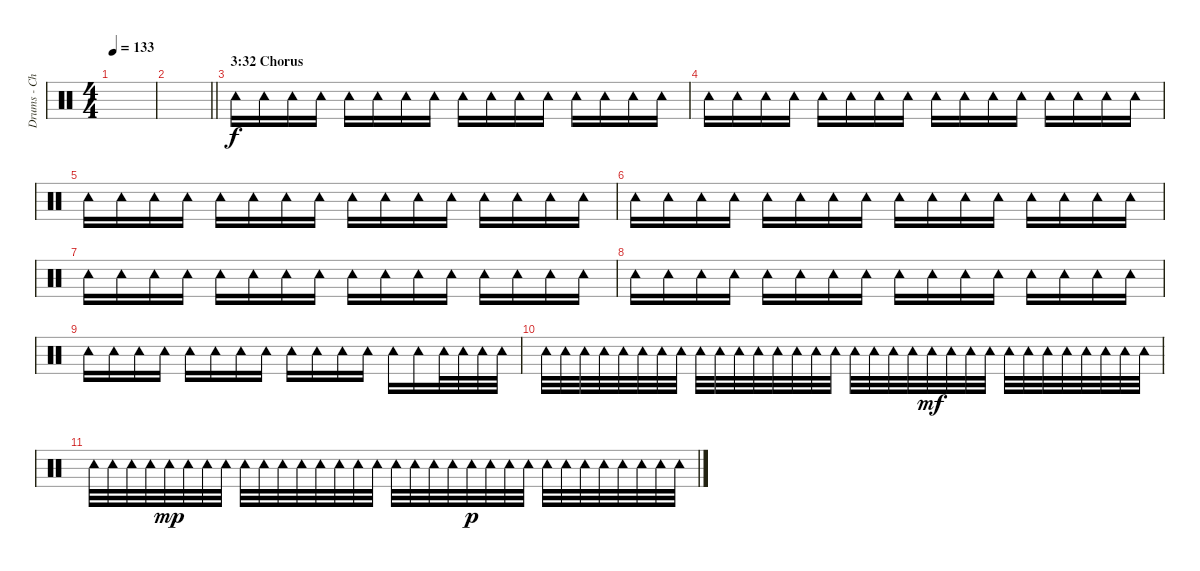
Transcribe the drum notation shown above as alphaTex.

\track ("Drums - Chorus - Tambourine" "Drums - Ch") {instrument percussion}
\staff {score}
\articulation defaults
\ts (4 4)
\tempo 133
\clef neutral
\ks c
|
\barLineRight lightlight
|
\section ("" "3:32 Chorus")
"Tambourine (hit)".16 "Tambourine (hit)".16 "Tambourine (hit)".16 "Tambourine (hit)".16 "Tambourine (hit)".16 "Tambourine (hit)".16 "Tambourine (hit)".16 "Tambourine (hit)".16 "Tambourine (hit)".16 "Tambourine (hit)".16 "Tambourine (hit)".16 "Tambourine (hit)".16 "Tambourine (hit)".16 "Tambourine (hit)".16 "Tambourine (hit)".16 "Tambourine (hit)".16 |
"Tambourine (hit)".16 "Tambourine (hit)".16 "Tambourine (hit)".16 "Tambourine (hit)".16 "Tambourine (hit)".16 "Tambourine (hit)".16 "Tambourine (hit)".16 "Tambourine (hit)".16 "Tambourine (hit)".16 "Tambourine (hit)".16 "Tambourine (hit)".16 "Tambourine (hit)".16 "Tambourine (hit)".16 "Tambourine (hit)".16 "Tambourine (hit)".16 "Tambourine (hit)".16 |
"Tambourine (hit)".16 "Tambourine (hit)".16 "Tambourine (hit)".16 "Tambourine (hit)".16 "Tambourine (hit)".16 "Tambourine (hit)".16 "Tambourine (hit)".16 "Tambourine (hit)".16 "Tambourine (hit)".16 "Tambourine (hit)".16 "Tambourine (hit)".16 "Tambourine (hit)".16 "Tambourine (hit)".16 "Tambourine (hit)".16 "Tambourine (hit)".16 "Tambourine (hit)".16 |
"Tambourine (hit)".16 "Tambourine (hit)".16 "Tambourine (hit)".16 "Tambourine (hit)".16 "Tambourine (hit)".16 "Tambourine (hit)".16 "Tambourine (hit)".16 "Tambourine (hit)".16 "Tambourine (hit)".16 "Tambourine (hit)".16 "Tambourine (hit)".16 "Tambourine (hit)".16 "Tambourine (hit)".16 "Tambourine (hit)".16 "Tambourine (hit)".16 "Tambourine (hit)".16 |
"Tambourine (hit)".16 "Tambourine (hit)".16 "Tambourine (hit)".16 "Tambourine (hit)".16 "Tambourine (hit)".16 "Tambourine (hit)".16 "Tambourine (hit)".16 "Tambourine (hit)".16 "Tambourine (hit)".16 "Tambourine (hit)".16 "Tambourine (hit)".16 "Tambourine (hit)".16 "Tambourine (hit)".16 "Tambourine (hit)".16 "Tambourine (hit)".16 "Tambourine (hit)".16 |
"Tambourine (hit)".16 "Tambourine (hit)".16 "Tambourine (hit)".16 "Tambourine (hit)".16 "Tambourine (hit)".16 "Tambourine (hit)".16 "Tambourine (hit)".16 "Tambourine (hit)".16 "Tambourine (hit)".16 "Tambourine (hit)".16 "Tambourine (hit)".16 "Tambourine (hit)".16 "Tambourine (hit)".16 "Tambourine (hit)".16 "Tambourine (hit)".16 "Tambourine (hit)".16 |
"Tambourine (hit)".16 "Tambourine (hit)".16 "Tambourine (hit)".16 "Tambourine (hit)".16 "Tambourine (hit)".16 "Tambourine (hit)".16 "Tambourine (hit)".16 "Tambourine (hit)".16 "Tambourine (hit)".16 "Tambourine (hit)".16 "Tambourine (hit)".16 "Tambourine (hit)".16 "Tambourine (hit)".16{dy f} "Tambourine (hit)".16 "Tambourine (hit)".32 "Tambourine (hit)".32 "Tambourine (hit)".32 "Tambourine (hit)".32 |
"Tambourine (hit)".32 "Tambourine (hit)".32 "Tambourine (hit)".32 "Tambourine (hit)".32 "Tambourine (hit)".32 "Tambourine (hit)".32 "Tambourine (hit)".32 "Tambourine (hit)".32 "Tambourine (hit)".32 "Tambourine (hit)".32 "Tambourine (hit)".32 "Tambourine (hit)".32 "Tambourine (hit)".32 "Tambourine (hit)".32 "Tambourine (hit)".32 "Tambourine (hit)".32 "Tambourine (hit)".32 "Tambourine (hit)".32 "Tambourine (hit)".32 "Tambourine (hit)".32 "Tambourine (hit)".32{dy mf} "Tambourine (hit)".32 "Tambourine (hit)".32 "Tambourine (hit)".32 "Tambourine (hit)".32 "Tambourine (hit)".32 "Tambourine (hit)".32 "Tambourine (hit)".32 "Tambourine (hit)".32 "Tambourine (hit)".32 "Tambourine (hit)".32 "Tambourine (hit)".32 |
"Tambourine (hit)".32 "Tambourine (hit)".32 "Tambourine (hit)".32 "Tambourine (hit)".32 "Tambourine (hit)".32{dy mp} "Tambourine (hit)".32 "Tambourine (hit)".32 "Tambourine (hit)".32 "Tambourine (hit)".32 "Tambourine (hit)".32 "Tambourine (hit)".32 "Tambourine (hit)".32 "Tambourine (hit)".32 "Tambourine (hit)".32 "Tambourine (hit)".32 "Tambourine (hit)".32 "Tambourine (hit)".32 "Tambourine (hit)".32 "Tambourine (hit)".32 "Tambourine (hit)".32 "Tambourine (hit)".32{dy p} "Tambourine (hit)".32 "Tambourine (hit)".32 "Tambourine (hit)".32 "Tambourine (hit)".32 "Tambourine (hit)".32 "Tambourine (hit)".32 "Tambourine (hit)".32 "Tambourine (hit)".32 "Tambourine (hit)".32 "Tambourine (hit)".32 "Tambourine (hit)".32
